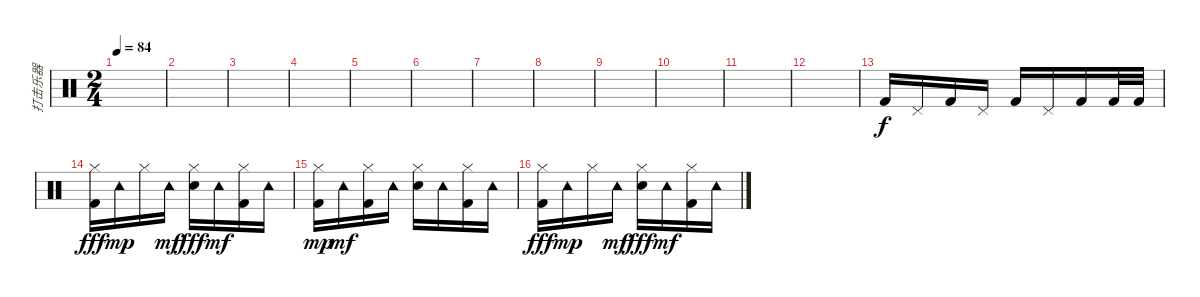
\track ("打击乐器" "打击乐器") {instrument percussion}
\staff {score}
\articulation defaults
\ts (2 4)
\tempo 84
\clef neutral
\ks c
|
|
|
|
|
|
|
|
|
|
|
|
"Kick (hit) 2".16 "Pedal Hi-Hat (hit)".16 "Kick (hit) 2".16 "Pedal Hi-Hat (hit)".16 "Kick (hit) 2".16 "Pedal Hi-Hat (hit)".16 "Kick (hit) 2".16 "Kick (hit) 2".32 "Kick (hit) 2".32 |
("Hi-Hat (closed)" "Kick (hit) 2").16{dy fff} "Tambourine (hit)".16{dy mp} "Hi-Hat (closed)".16 "Tambourine (hit)".16{dy mf} ("Hi-Hat (closed)" "Snare (hit) 2").16{dy fff} "Tambourine (hit)".16{dy mf} ("Hi-Hat (closed)" "Kick (hit) 2").16 "Tambourine (hit)".16 |
("Hi-Hat (closed)" "Kick (hit) 2").16{dy mp} "Tambourine (hit)".16{dy mf} ("Hi-Hat (closed)" "Kick (hit) 2").16 "Tambourine (hit)".16 ("Hi-Hat (closed)" "Snare (hit) 2").16 "Tambourine (hit)".16 ("Hi-Hat (closed)" "Kick (hit) 2").16 "Tambourine (hit)".16 |
("Hi-Hat (closed)" "Kick (hit) 2").16{dy fff} "Tambourine (hit)".16{dy mp} "Hi-Hat (closed)".16 "Tambourine (hit)".16{dy mf} ("Hi-Hat (closed)" "Snare (hit) 2").16{dy fff} "Tambourine (hit)".16{dy mf} ("Hi-Hat (closed)" "Kick (hit) 2").16 "Tambourine (hit)".16
